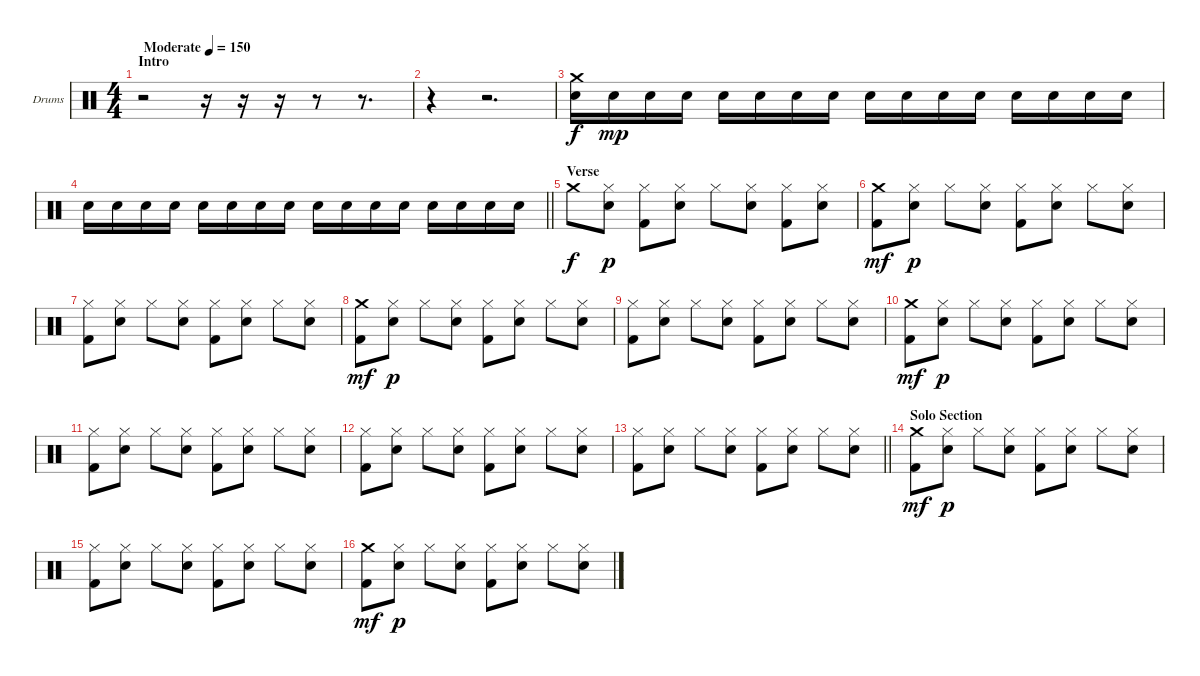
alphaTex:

\bracketExtendMode groupsimilarinstruments
\firstSystemTrackNameOrientation horizontal
\otherSystemsTrackNameOrientation horizontal
\track ("Drumkit" "Drums") {instrument percussion}
\staff {score}
\articulation defaults
\ts (4 4)
\beaming (8 2 2 2 2)
\section ("" "Intro")
\tempo (150 "Moderate")
\clef neutral
\ks c
r.2{dy f beam Down} r.16{beam Down} r.16{beam Down} r.16{beam Down} r.8{beam Down} r.8{d beam Down} |
r.4{beam Down} r.2{d beam Down} |
("Crash medium (hit)" "Snare (hit) 2").16{beam Down} "Snare (hit) 2".16{dy mp beam Down} "Snare (hit) 2".16{beam Down} "Snare (hit) 2".16{beam Down} "Snare (hit) 2".16{beam Down} "Snare (hit) 2".16{beam Down} "Snare (hit) 2".16{beam Down} "Snare (hit) 2".16{beam Down} "Snare (hit) 2".16{beam Down} "Snare (hit) 2".16{beam Down} "Snare (hit) 2".16{beam Down} "Snare (hit) 2".16{beam Down} "Snare (hit) 2".16{beam Down} "Snare (hit) 2".16{beam Down} "Snare (hit) 2".16{beam Down} "Snare (hit) 2".16{beam Down} |
\barLineRight lightlight "Snare (hit) 2".16{beam Down} "Snare (hit) 2".16{beam Down} "Snare (hit) 2".16{beam Down} "Snare (hit) 2".16{beam Down} "Snare (hit) 2".16{beam Down} "Snare (hit) 2".16{beam Down} "Snare (hit) 2".16{beam Down} "Snare (hit) 2".16{beam Down} "Snare (hit) 2".16{beam Down} "Snare (hit) 2".16{beam Down} "Snare (hit) 2".16{beam Down} "Snare (hit) 2".16{beam Down} "Snare (hit) 2".16{beam Down} "Snare (hit) 2".16{beam Down} "Snare (hit) 2".16{beam Down} "Snare (hit) 2".16{beam Down}
|
\section ("" "Verse")
"Crash medium (hit)".8{dy f beam Down} ("Hi-Hat (closed)" "Snare (hit) 2").8{dy p beam Down} ("Hi-Hat (closed)" "Kick (hit) 2").8{beam Down} ("Hi-Hat (closed)" "Snare (hit) 2").8{beam Down} "Hi-Hat (closed)".8{beam Down} ("Hi-Hat (closed)" "Snare (hit) 2").8{beam Down} ("Hi-Hat (closed)" "Kick (hit) 2").8{beam Down} ("Hi-Hat (closed)" "Snare (hit) 2").8{beam Down} |
("Crash medium (hit)" "Kick (hit) 2").8{dy mf beam Down} ("Hi-Hat (closed)" "Snare (hit) 2").8{dy p beam Down} "Hi-Hat (closed)".8{beam Down} ("Hi-Hat (closed)" "Snare (hit) 2").8{beam Down} ("Hi-Hat (closed)" "Kick (hit) 2").8{beam Down} ("Hi-Hat (closed)" "Snare (hit) 2").8{beam Down} "Hi-Hat (closed)".8{beam Down} ("Hi-Hat (closed)" "Snare (hit) 2").8{beam Down} |
("Hi-Hat (closed)" "Kick (hit) 2").8{beam Down} ("Hi-Hat (closed)" "Snare (hit) 2").8{beam Down} "Hi-Hat (closed)".8{beam Down} ("Hi-Hat (closed)" "Snare (hit) 2").8{beam Down} ("Hi-Hat (closed)" "Kick (hit) 2").8{beam Down} ("Hi-Hat (closed)" "Snare (hit) 2").8{beam Down} "Hi-Hat (closed)".8{beam Down} ("Hi-Hat (closed)" "Snare (hit) 2").8{beam Down} |
("Crash medium (hit)" "Kick (hit) 2").8{dy mf beam Down} ("Hi-Hat (closed)" "Snare (hit) 2").8{dy p beam Down} "Hi-Hat (closed)".8{beam Down} ("Hi-Hat (closed)" "Snare (hit) 2").8{beam Down} ("Hi-Hat (closed)" "Kick (hit) 2").8{beam Down} ("Hi-Hat (closed)" "Snare (hit) 2").8{beam Down} "Hi-Hat (closed)".8{beam Down} ("Hi-Hat (closed)" "Snare (hit) 2").8{beam Down} |
("Hi-Hat (closed)" "Kick (hit) 2").8{beam Down} ("Hi-Hat (closed)" "Snare (hit) 2").8{beam Down} "Hi-Hat (closed)".8{beam Down} ("Hi-Hat (closed)" "Snare (hit) 2").8{beam Down} ("Hi-Hat (closed)" "Kick (hit) 2").8{beam Down} ("Hi-Hat (closed)" "Snare (hit) 2").8{beam Down} "Hi-Hat (closed)".8{beam Down} ("Hi-Hat (closed)" "Snare (hit) 2").8{beam Down} |
("Crash medium (hit)" "Kick (hit) 2").8{dy mf beam Down} ("Hi-Hat (closed)" "Snare (hit) 2").8{dy p beam Down} "Hi-Hat (closed)".8{beam Down} ("Hi-Hat (closed)" "Snare (hit) 2").8{beam Down} ("Hi-Hat (closed)" "Kick (hit) 2").8{beam Down} ("Hi-Hat (closed)" "Snare (hit) 2").8{beam Down} "Hi-Hat (closed)".8{beam Down} ("Hi-Hat (closed)" "Snare (hit) 2").8{beam Down} |
("Hi-Hat (closed)" "Kick (hit) 2").8{beam Down} ("Hi-Hat (closed)" "Snare (hit) 2").8{beam Down} "Hi-Hat (closed)".8{beam Down} ("Hi-Hat (closed)" "Snare (hit) 2").8{beam Down} ("Hi-Hat (closed)" "Kick (hit) 2").8{beam Down} ("Hi-Hat (closed)" "Snare (hit) 2").8{beam Down} "Hi-Hat (closed)".8{beam Down} ("Hi-Hat (closed)" "Snare (hit) 2").8{beam Down} |
("Hi-Hat (closed)" "Kick (hit) 2").8{beam Down} ("Hi-Hat (closed)" "Snare (hit) 2").8{beam Down} "Hi-Hat (closed)".8{beam Down} ("Hi-Hat (closed)" "Snare (hit) 2").8{beam Down} ("Hi-Hat (closed)" "Kick (hit) 2").8{beam Down} ("Hi-Hat (closed)" "Snare (hit) 2").8{beam Down} "Hi-Hat (closed)".8{beam Down} ("Hi-Hat (closed)" "Snare (hit) 2").8{beam Down} |
\barLineRight lightlight
("Hi-Hat (closed)" "Kick (hit) 2").8{beam Down} ("Hi-Hat (closed)" "Snare (hit) 2").8{beam Down} "Hi-Hat (closed)".8{beam Down} ("Hi-Hat (closed)" "Snare (hit) 2").8{beam Down} ("Hi-Hat (closed)" "Kick (hit) 2").8{beam Down} ("Hi-Hat (closed)" "Snare (hit) 2").8{beam Down} "Hi-Hat (closed)".8{beam Down} ("Hi-Hat (closed)" "Snare (hit) 2").8{beam Down} |
\section ("" "Solo Section")
("Crash medium (hit)" "Kick (hit) 2").8{dy mf beam Down} ("Hi-Hat (closed)" "Snare (hit) 2").8{dy p beam Down} "Hi-Hat (closed)".8{beam Down} ("Hi-Hat (closed)" "Snare (hit) 2").8{beam Down} ("Hi-Hat (closed)" "Kick (hit) 2").8{beam Down} ("Hi-Hat (closed)" "Snare (hit) 2").8{beam Down} "Hi-Hat (closed)".8{beam Down} ("Hi-Hat (closed)" "Snare (hit) 2").8{beam Down} |
("Hi-Hat (closed)" "Kick (hit) 2").8{beam Down} ("Hi-Hat (closed)" "Snare (hit) 2").8{beam Down} "Hi-Hat (closed)".8{beam Down} ("Hi-Hat (closed)" "Snare (hit) 2").8{beam Down} ("Hi-Hat (closed)" "Kick (hit) 2").8{beam Down} ("Hi-Hat (closed)" "Snare (hit) 2").8{beam Down} "Hi-Hat (closed)".8{beam Down} ("Hi-Hat (closed)" "Snare (hit) 2").8{beam Down} |
("Crash medium (hit)" "Kick (hit) 2").8{dy mf beam Down} ("Hi-Hat (closed)" "Snare (hit) 2").8{dy p beam Down} "Hi-Hat (closed)".8{beam Down} ("Hi-Hat (closed)" "Snare (hit) 2").8{beam Down} ("Hi-Hat (closed)" "Kick (hit) 2").8{beam Down} ("Hi-Hat (closed)" "Snare (hit) 2").8{beam Down} "Hi-Hat (closed)".8{beam Down} ("Hi-Hat (closed)" "Snare (hit) 2").8{beam Down}
